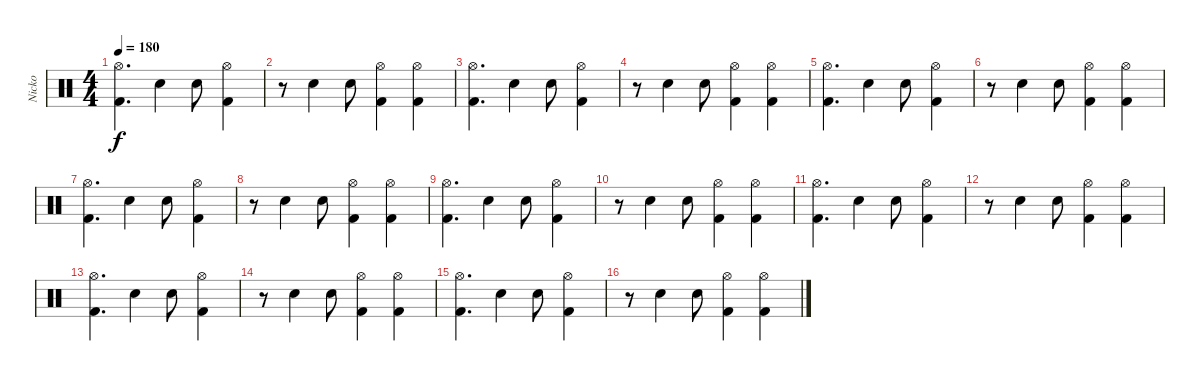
\track ("Nicko" "Nicko") {instrument percussion}
\staff {score}
\articulation defaults
\ts (4 4)
\tempo 180
\clef neutral
\ks c
("Hi-Hat (open)" "Kick (hit) 2").4{d dy f} "Snare (hit) 2".4 "Snare (hit) 2".8 ("Hi-Hat (open)" "Kick (hit) 2").4 |
r.8 "Snare (hit) 2".4 "Snare (hit) 2".8 ("Hi-Hat (open)" "Kick (hit) 2").4 ("Hi-Hat (open)" "Kick (hit) 2").4 |
("Hi-Hat (open)" "Kick (hit) 2").4{d} "Snare (hit) 2".4 "Snare (hit) 2".8 ("Hi-Hat (open)" "Kick (hit) 2").4 |
r.8 "Snare (hit) 2".4 "Snare (hit) 2".8 ("Hi-Hat (open)" "Kick (hit) 2").4 ("Hi-Hat (open)" "Kick (hit) 2").4 |
("Hi-Hat (open)" "Kick (hit) 2").4{d} "Snare (hit) 2".4 "Snare (hit) 2".8 ("Hi-Hat (open)" "Kick (hit) 2").4 |
r.8 "Snare (hit) 2".4 "Snare (hit) 2".8 ("Hi-Hat (open)" "Kick (hit) 2").4 ("Hi-Hat (open)" "Kick (hit) 2").4 |
("Hi-Hat (open)" "Kick (hit) 2").4{d} "Snare (hit) 2".4 "Snare (hit) 2".8 ("Hi-Hat (open)" "Kick (hit) 2").4 |
r.8 "Snare (hit) 2".4 "Snare (hit) 2".8 ("Hi-Hat (open)" "Kick (hit) 2").4 ("Hi-Hat (open)" "Kick (hit) 2").4 |
("Hi-Hat (open)" "Kick (hit) 2").4{d} "Snare (hit) 2".4 "Snare (hit) 2".8 ("Hi-Hat (open)" "Kick (hit) 2").4 |
r.8 "Snare (hit) 2".4 "Snare (hit) 2".8 ("Hi-Hat (open)" "Kick (hit) 2").4 ("Hi-Hat (open)" "Kick (hit) 2").4 |
("Hi-Hat (open)" "Kick (hit) 2").4{d} "Snare (hit) 2".4 "Snare (hit) 2".8 ("Hi-Hat (open)" "Kick (hit) 2").4 |
r.8 "Snare (hit) 2".4 "Snare (hit) 2".8 ("Hi-Hat (open)" "Kick (hit) 2").4 ("Hi-Hat (open)" "Kick (hit) 2").4 |
("Hi-Hat (open)" "Kick (hit) 2").4{d} "Snare (hit) 2".4 "Snare (hit) 2".8 ("Hi-Hat (open)" "Kick (hit) 2").4 |
r.8 "Snare (hit) 2".4 "Snare (hit) 2".8 ("Hi-Hat (open)" "Kick (hit) 2").4 ("Hi-Hat (open)" "Kick (hit) 2").4 |
("Hi-Hat (open)" "Kick (hit) 2").4{d} "Snare (hit) 2".4 "Snare (hit) 2".8 ("Hi-Hat (open)" "Kick (hit) 2").4 |
r.8 "Snare (hit) 2".4 "Snare (hit) 2".8 ("Hi-Hat (open)" "Kick (hit) 2").4 ("Hi-Hat (open)" "Kick (hit) 2").4
